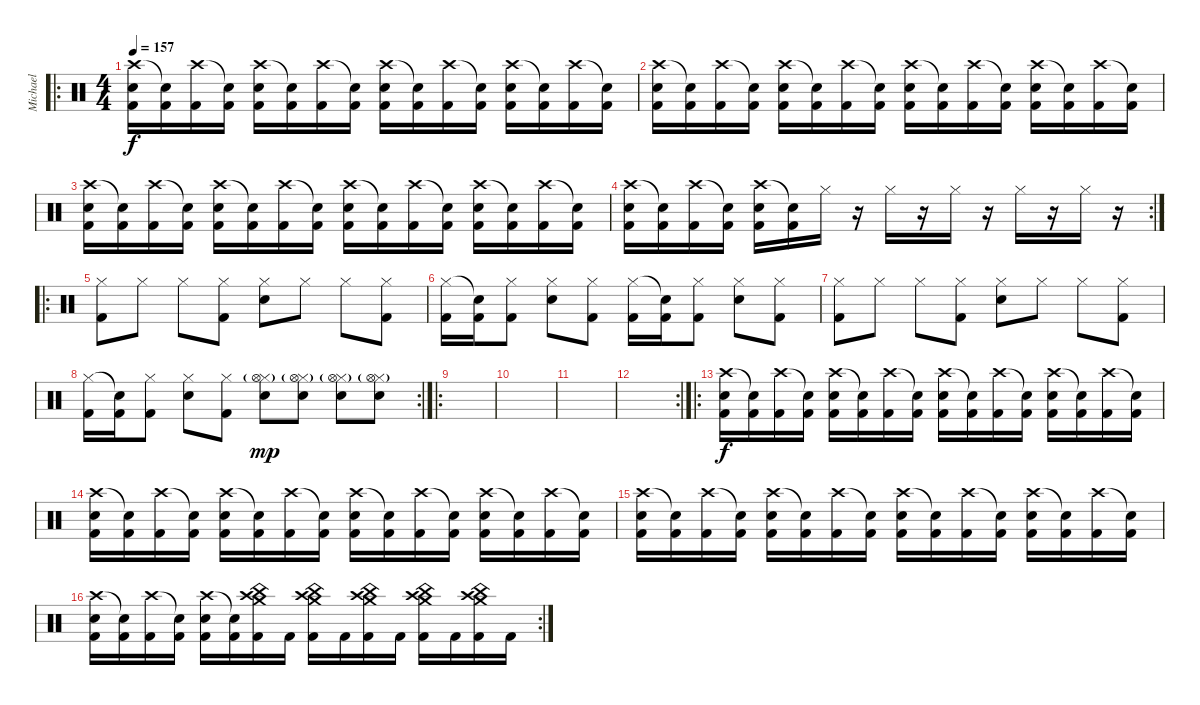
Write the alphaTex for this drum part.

\track ("Michael" "Michael") {instrument percussion}
\staff {score}
\articulation defaults
\ro
\ts (4 4)
\tempo 157
\clef neutral
\ks c
("Crash high (hit)" "Electric Snare (hit)" "Kick (hit) 2").16{dy f} ("Snare (hit)"{t} "Kick (hit) 2").16 ("Crash high (hit)" "Kick (hit) 2").16 ("Snare (hit)"{t} "Kick (hit) 2").16 ("Crash high (hit)" "Electric Snare (hit)" "Kick (hit) 2").16 ("Snare (hit)"{t} "Kick (hit) 2").16 ("Crash high (hit)" "Kick (hit) 2").16 ("Snare (hit)"{t} "Kick (hit) 2").16 ("Crash high (hit)" "Electric Snare (hit)" "Kick (hit) 2").16 ("Snare (hit)"{t} "Kick (hit) 2").16 ("Crash high (hit)" "Kick (hit) 2").16 ("Snare (hit)"{t} "Kick (hit) 2").16 ("Crash high (hit)" "Electric Snare (hit)" "Kick (hit) 2").16 ("Snare (hit)"{t} "Kick (hit) 2").16 ("Crash high (hit)" "Kick (hit) 2").16 ("Snare (hit)"{t} "Kick (hit) 2").16 |
("Crash high (hit)" "Electric Snare (hit)" "Kick (hit) 2").16 ("Snare (hit)"{t} "Kick (hit) 2").16 ("Crash high (hit)" "Kick (hit) 2").16 ("Snare (hit)"{t} "Kick (hit) 2").16 ("Crash high (hit)" "Electric Snare (hit)" "Kick (hit) 2").16 ("Snare (hit)"{t} "Kick (hit) 2").16 ("Crash high (hit)" "Kick (hit) 2").16 ("Snare (hit)"{t} "Kick (hit) 2").16 ("Crash high (hit)" "Electric Snare (hit)" "Kick (hit) 2").16 ("Snare (hit)"{t} "Kick (hit) 2").16 ("Crash high (hit)" "Kick (hit) 2").16 ("Snare (hit)"{t} "Kick (hit) 2").16 ("Crash high (hit)" "Electric Snare (hit)" "Kick (hit) 2").16 ("Snare (hit)"{t} "Kick (hit) 2").16 ("Crash high (hit)" "Kick (hit) 2").16 ("Snare (hit)"{t} "Kick (hit) 2").16 |
("Crash high (hit)" "Electric Snare (hit)" "Kick (hit) 2").16 ("Snare (hit)"{t} "Kick (hit) 2").16 ("Crash high (hit)" "Kick (hit) 2").16 ("Snare (hit)"{t} "Kick (hit) 2").16 ("Crash high (hit)" "Electric Snare (hit)" "Kick (hit) 2").16 ("Snare (hit)"{t} "Kick (hit) 2").16 ("Crash high (hit)" "Kick (hit) 2").16 ("Snare (hit)"{t} "Kick (hit) 2").16 ("Crash high (hit)" "Electric Snare (hit)" "Kick (hit) 2").16 ("Snare (hit)"{t} "Kick (hit) 2").16 ("Crash high (hit)" "Kick (hit) 2").16 ("Snare (hit)"{t} "Kick (hit) 2").16 ("Crash high (hit)" "Electric Snare (hit)" "Kick (hit) 2").16 ("Snare (hit)"{t} "Kick (hit) 2").16 ("Crash high (hit)" "Kick (hit) 2").16 ("Snare (hit)"{t} "Kick (hit) 2").16 |
\rc 2
("Crash high (hit)" "Electric Snare (hit)" "Kick (hit) 2").16 ("Snare (hit)"{t} "Kick (hit) 2").16 ("Crash high (hit)" "Kick (hit) 2").16 ("Snare (hit)"{t} "Kick (hit) 2").16 ("Crash high (hit)" "Electric Snare (hit)" "Kick (hit) 2").16 ("Snare (hit)"{t} "Kick (hit) 2").16 "Hi-Hat (closed)".16 r.16 "Hi-Hat (closed)".16 r.16 "Hi-Hat (closed)".16 r.16 "Hi-Hat (closed)".16 r.16 "Hi-Hat (closed)".16 r.16 |
\ro
("Hi-Hat (closed)" "Kick (hit) 2").8 "Hi-Hat (closed)".8 "Hi-Hat (closed)".8 ("Hi-Hat (closed)" "Kick (hit) 2").8 ("Hi-Hat (closed)" "Electric Snare (hit)").8 "Hi-Hat (closed)".8 "Hi-Hat (closed)".8 ("Hi-Hat (closed)" "Kick (hit) 2").8 |
("Hi-Hat (closed)" "Kick (hit) 2").16 ("Snare (hit)"{t} "Kick (hit) 2").16 ("Hi-Hat (closed)" "Kick (hit) 2").8 ("Hi-Hat (closed)" "Electric Snare (hit)").8 ("Hi-Hat (closed)" "Kick (hit) 2").8 ("Hi-Hat (closed)" "Kick (hit) 2").16 ("Snare (hit)"{t} "Kick (hit) 2").16 ("Hi-Hat (closed)" "Kick (hit) 2").8 ("Hi-Hat (closed)" "Electric Snare (hit)").8 ("Hi-Hat (closed)" "Kick (hit) 2").8 |
("Hi-Hat (closed)" "Kick (hit) 2").8 "Hi-Hat (closed)".8 "Hi-Hat (closed)".8 ("Hi-Hat (closed)" "Kick (hit) 2").8 ("Hi-Hat (closed)" "Electric Snare (hit)").8 "Hi-Hat (closed)".8 "Hi-Hat (closed)".8 ("Hi-Hat (closed)" "Kick (hit) 2").8 |
\rc 2
("Hi-Hat (closed)" "Kick (hit) 2").16 ("Snare (hit)"{t} "Kick (hit) 2").16 ("Hi-Hat (closed)" "Kick (hit) 2").8 ("Hi-Hat (closed)" "Electric Snare (hit)").8 ("Hi-Hat (closed)" "Kick (hit) 2").8 ("Hi-Hat (closed)" "Hi-Hat (open)"{g} "Electric Snare (hit)").8{dy mp} ("Hi-Hat (closed)" "Hi-Hat (open)"{g} "Electric Snare (hit)").8 ("Hi-Hat (closed)" "Hi-Hat (open)"{g} "Electric Snare (hit)").8 ("Hi-Hat (closed)" "Hi-Hat (open)"{g} "Electric Snare (hit)").8 |
\ro
|
|
|
\rc 2
|
\ro
("Crash high (hit)" "Electric Snare (hit)" "Kick (hit) 2").16{dy f} ("Snare (hit)"{t} "Kick (hit) 2").16 ("Crash high (hit)" "Kick (hit) 2").16 ("Snare (hit)"{t} "Kick (hit) 2").16 ("Crash high (hit)" "Electric Snare (hit)" "Kick (hit) 2").16 ("Snare (hit)"{t} "Kick (hit) 2").16 ("Crash high (hit)" "Kick (hit) 2").16 ("Snare (hit)"{t} "Kick (hit) 2").16 ("Crash high (hit)" "Electric Snare (hit)" "Kick (hit) 2").16 ("Snare (hit)"{t} "Kick (hit) 2").16 ("Crash high (hit)" "Kick (hit) 2").16 ("Snare (hit)"{t} "Kick (hit) 2").16 ("Crash high (hit)" "Electric Snare (hit)" "Kick (hit) 2").16 ("Snare (hit)"{t} "Kick (hit) 2").16 ("Crash high (hit)" "Kick (hit) 2").16 ("Snare (hit)"{t} "Kick (hit) 2").16 |
("Crash high (hit)" "Electric Snare (hit)" "Kick (hit) 2").16 ("Snare (hit)"{t} "Kick (hit) 2").16 ("Crash high (hit)" "Kick (hit) 2").16 ("Snare (hit)"{t} "Kick (hit) 2").16 ("Crash high (hit)" "Electric Snare (hit)" "Kick (hit) 2").16 ("Snare (hit)"{t} "Kick (hit) 2").16 ("Crash high (hit)" "Kick (hit) 2").16 ("Snare (hit)"{t} "Kick (hit) 2").16 ("Crash high (hit)" "Electric Snare (hit)" "Kick (hit) 2").16 ("Snare (hit)"{t} "Kick (hit) 2").16 ("Crash high (hit)" "Kick (hit) 2").16 ("Snare (hit)"{t} "Kick (hit) 2").16 ("Crash high (hit)" "Electric Snare (hit)" "Kick (hit) 2").16 ("Snare (hit)"{t} "Kick (hit) 2").16 ("Crash high (hit)" "Kick (hit) 2").16 ("Snare (hit)"{t} "Kick (hit) 2").16 |
("Crash high (hit)" "Electric Snare (hit)" "Kick (hit) 2").16 ("Snare (hit)"{t} "Kick (hit) 2").16 ("Crash high (hit)" "Kick (hit) 2").16 ("Snare (hit)"{t} "Kick (hit) 2").16 ("Crash high (hit)" "Electric Snare (hit)" "Kick (hit) 2").16 ("Snare (hit)"{t} "Kick (hit) 2").16 ("Crash high (hit)" "Kick (hit) 2").16 ("Snare (hit)"{t} "Kick (hit) 2").16 ("Crash high (hit)" "Electric Snare (hit)" "Kick (hit) 2").16 ("Snare (hit)"{t} "Kick (hit) 2").16 ("Crash high (hit)" "Kick (hit) 2").16 ("Snare (hit)"{t} "Kick (hit) 2").16 ("Crash high (hit)" "Electric Snare (hit)" "Kick (hit) 2").16 ("Snare (hit)"{t} "Kick (hit) 2").16 ("Crash high (hit)" "Kick (hit) 2").16 ("Snare (hit)"{t} "Kick (hit) 2").16 |
\rc 2
("Crash high (hit)" "Electric Snare (hit)" "Kick (hit) 2").16 ("Snare (hit)"{t} "Kick (hit) 2").16 ("Crash high (hit)" "Kick (hit) 2").16 ("Snare (hit)"{t} "Kick (hit) 2").16 ("Crash high (hit)" "Electric Snare (hit)" "Kick (hit) 2").16 ("Snare (hit)"{t} "Kick (hit) 2").16 ("Crash high (hit)" "China (hit)" "Crash medium (hit)" "Kick (hit) 2").16 "Kick (hit) 2".16 ("Crash high (hit)" "China (hit)" "Crash medium (hit)" "Kick (hit) 2").16 "Kick (hit) 2".16 ("Crash high (hit)" "China (hit)" "Crash medium (hit)" "Kick (hit) 2").16 "Kick (hit) 2".16 ("Crash high (hit)" "China (hit)" "Crash medium (hit)" "Kick (hit) 2").16 "Kick (hit) 2".16 ("Crash high (hit)" "China (hit)" "Crash medium (hit)" "Kick (hit) 2").16 "Kick (hit) 2".16
